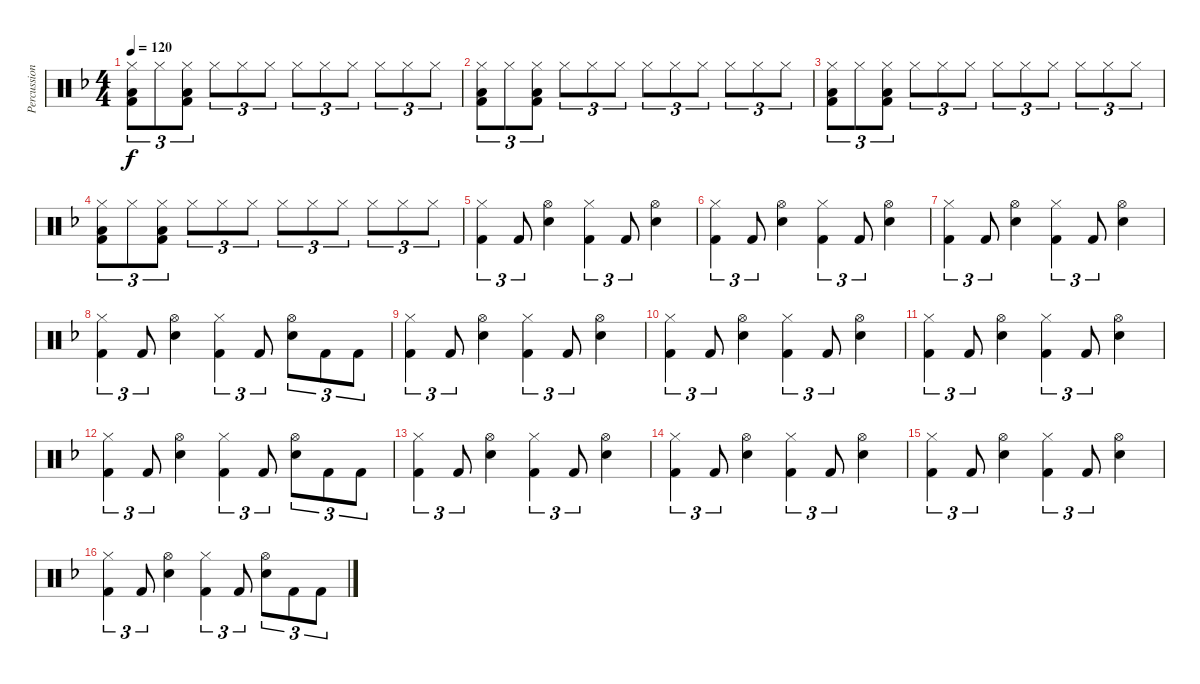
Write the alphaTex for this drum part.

\track ("Percussion" "Percussion") {instrument percussion}
\staff {score}
\articulation defaults
\ts (4 4)
\tempo 120
\clef neutral
\ks dminor
("Hi-Hat (closed)" "Low Floor Tom (hit)" "Kick (hit) 2").8{tu (3 2) dy f} "Hi-Hat (closed)".8{tu (3 2)} ("Hi-Hat (closed)" "Low Floor Tom (hit)" "Kick (hit) 2").8{tu (3 2)} "Hi-Hat (closed)".8{tu (3 2)} "Hi-Hat (closed)".8{tu (3 2)} "Hi-Hat (closed)".8{tu (3 2)} "Hi-Hat (closed)".8{tu (3 2)} "Hi-Hat (closed)".8{tu (3 2)} "Hi-Hat (closed)".8{tu (3 2)} "Hi-Hat (closed)".8{tu (3 2)} "Hi-Hat (closed)".8{tu (3 2)} "Hi-Hat (closed)".8{tu (3 2)} |
("Hi-Hat (closed)" "Low Floor Tom (hit)" "Kick (hit) 2").8{tu (3 2)} "Hi-Hat (closed)".8{tu (3 2)} ("Hi-Hat (closed)" "Low Floor Tom (hit)" "Kick (hit) 2").8{tu (3 2)} "Hi-Hat (closed)".8{tu (3 2)} "Hi-Hat (closed)".8{tu (3 2)} "Hi-Hat (closed)".8{tu (3 2)} "Hi-Hat (closed)".8{tu (3 2)} "Hi-Hat (closed)".8{tu (3 2)} "Hi-Hat (closed)".8{tu (3 2)} "Hi-Hat (closed)".8{tu (3 2)} "Hi-Hat (closed)".8{tu (3 2)} "Hi-Hat (closed)".8{tu (3 2)} |
("Hi-Hat (closed)" "Low Floor Tom (hit)" "Kick (hit) 2").8{tu (3 2)} "Hi-Hat (closed)".8{tu (3 2)} ("Hi-Hat (closed)" "Low Floor Tom (hit)" "Kick (hit) 2").8{tu (3 2)} "Hi-Hat (closed)".8{tu (3 2)} "Hi-Hat (closed)".8{tu (3 2)} "Hi-Hat (closed)".8{tu (3 2)} "Hi-Hat (closed)".8{tu (3 2)} "Hi-Hat (closed)".8{tu (3 2)} "Hi-Hat (closed)".8{tu (3 2)} "Hi-Hat (closed)".8{tu (3 2)} "Hi-Hat (closed)".8{tu (3 2)} "Hi-Hat (closed)".8{tu (3 2)} |
("Hi-Hat (closed)" "Low Floor Tom (hit)" "Kick (hit) 2").8{tu (3 2)} "Hi-Hat (closed)".8{tu (3 2)} ("Hi-Hat (closed)" "Low Floor Tom (hit)" "Kick (hit) 2").8{tu (3 2)} "Hi-Hat (closed)".8{tu (3 2)} "Hi-Hat (closed)".8{tu (3 2)} "Hi-Hat (closed)".8{tu (3 2)} "Hi-Hat (closed)".8{tu (3 2)} "Hi-Hat (closed)".8{tu (3 2)} "Hi-Hat (closed)".8{tu (3 2)} "Hi-Hat (closed)".8{tu (3 2)} "Hi-Hat (closed)".8{tu (3 2)} "Hi-Hat (closed)".8{tu (3 2)} |
("Hi-Hat (closed)" "Kick (hit) 2").4{tu (3 2)} "Kick (hit) 2".8{tu (3 2)} ("Hi-Hat (open)" "Electric Snare (hit)").4 ("Hi-Hat (closed)" "Kick (hit) 2").4{tu (3 2)} "Kick (hit) 2".8{tu (3 2)} ("Hi-Hat (open)" "Electric Snare (hit)").4 |
("Hi-Hat (closed)" "Kick (hit) 2").4{tu (3 2)} "Kick (hit) 2".8{tu (3 2)} ("Hi-Hat (open)" "Electric Snare (hit)").4 ("Hi-Hat (closed)" "Kick (hit) 2").4{tu (3 2)} "Kick (hit) 2".8{tu (3 2)} ("Hi-Hat (open)" "Electric Snare (hit)").4 |
("Hi-Hat (closed)" "Kick (hit) 2").4{tu (3 2)} "Kick (hit) 2".8{tu (3 2)} ("Hi-Hat (open)" "Electric Snare (hit)").4 ("Hi-Hat (closed)" "Kick (hit) 2").4{tu (3 2)} "Kick (hit) 2".8{tu (3 2)} ("Hi-Hat (open)" "Electric Snare (hit)").4 |
("Hi-Hat (closed)" "Kick (hit) 2").4{tu (3 2)} "Kick (hit) 2".8{tu (3 2)} ("Hi-Hat (open)" "Electric Snare (hit)").4 ("Hi-Hat (closed)" "Kick (hit) 2").4{tu (3 2)} "Kick (hit) 2".8{tu (3 2)} ("Hi-Hat (open)" "Electric Snare (hit)").8{tu (3 2)} "Kick (hit) 2".8{tu (3 2)} "Kick (hit) 2".8{tu (3 2)} |
("Hi-Hat (closed)" "Kick (hit) 2").4{tu (3 2)} "Kick (hit) 2".8{tu (3 2)} ("Hi-Hat (open)" "Electric Snare (hit)").4 ("Hi-Hat (closed)" "Kick (hit) 2").4{tu (3 2)} "Kick (hit) 2".8{tu (3 2)} ("Hi-Hat (open)" "Electric Snare (hit)").4 |
("Hi-Hat (closed)" "Kick (hit) 2").4{tu (3 2)} "Kick (hit) 2".8{tu (3 2)} ("Hi-Hat (open)" "Electric Snare (hit)").4 ("Hi-Hat (closed)" "Kick (hit) 2").4{tu (3 2)} "Kick (hit) 2".8{tu (3 2)} ("Hi-Hat (open)" "Electric Snare (hit)").4 |
("Hi-Hat (closed)" "Kick (hit) 2").4{tu (3 2)} "Kick (hit) 2".8{tu (3 2)} ("Hi-Hat (open)" "Electric Snare (hit)").4 ("Hi-Hat (closed)" "Kick (hit) 2").4{tu (3 2)} "Kick (hit) 2".8{tu (3 2)} ("Hi-Hat (open)" "Electric Snare (hit)").4 |
("Hi-Hat (closed)" "Kick (hit) 2").4{tu (3 2)} "Kick (hit) 2".8{tu (3 2)} ("Hi-Hat (open)" "Electric Snare (hit)").4 ("Hi-Hat (closed)" "Kick (hit) 2").4{tu (3 2)} "Kick (hit) 2".8{tu (3 2)} ("Hi-Hat (open)" "Electric Snare (hit)").8{tu (3 2)} "Kick (hit) 2".8{tu (3 2)} "Kick (hit) 2".8{tu (3 2)} |
("Hi-Hat (closed)" "Kick (hit) 2").4{tu (3 2)} "Kick (hit) 2".8{tu (3 2)} ("Hi-Hat (open)" "Electric Snare (hit)").4 ("Hi-Hat (closed)" "Kick (hit) 2").4{tu (3 2)} "Kick (hit) 2".8{tu (3 2)} ("Hi-Hat (open)" "Electric Snare (hit)").4 |
("Hi-Hat (closed)" "Kick (hit) 2").4{tu (3 2)} "Kick (hit) 2".8{tu (3 2)} ("Hi-Hat (open)" "Electric Snare (hit)").4 ("Hi-Hat (closed)" "Kick (hit) 2").4{tu (3 2)} "Kick (hit) 2".8{tu (3 2)} ("Hi-Hat (open)" "Electric Snare (hit)").4 |
("Hi-Hat (closed)" "Kick (hit) 2").4{tu (3 2)} "Kick (hit) 2".8{tu (3 2)} ("Hi-Hat (open)" "Electric Snare (hit)").4 ("Hi-Hat (closed)" "Kick (hit) 2").4{tu (3 2)} "Kick (hit) 2".8{tu (3 2)} ("Hi-Hat (open)" "Electric Snare (hit)").4 |
("Hi-Hat (closed)" "Kick (hit) 2").4{tu (3 2)} "Kick (hit) 2".8{tu (3 2)} ("Hi-Hat (open)" "Electric Snare (hit)").4 ("Hi-Hat (closed)" "Kick (hit) 2").4{tu (3 2)} "Kick (hit) 2".8{tu (3 2)} ("Hi-Hat (open)" "Electric Snare (hit)").8{tu (3 2)} "Kick (hit) 2".8{tu (3 2)} "Kick (hit) 2".8{tu (3 2)}
